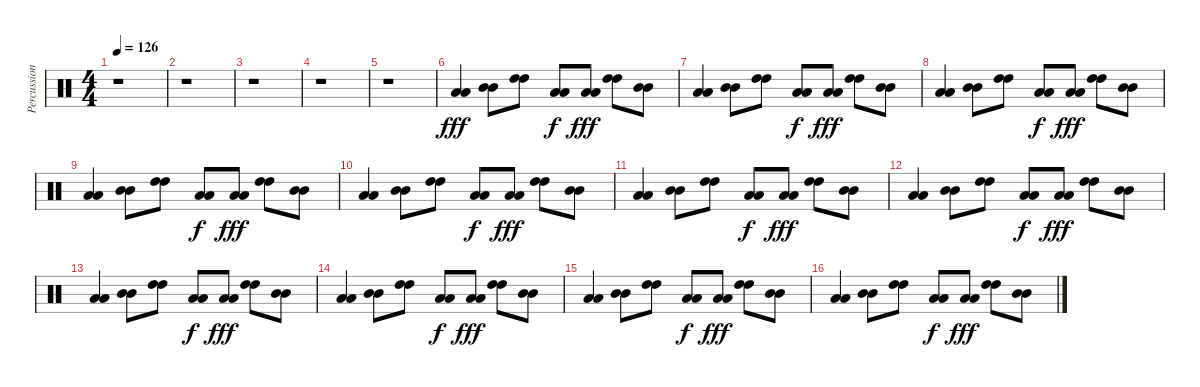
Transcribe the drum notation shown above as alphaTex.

\track ("Percussions 2" "Percussion") {instrument percussion}
\staff {score}
\articulation defaults
\ts (4 4)
\tempo 126
\clef neutral
\ks c
r.1{dy fff} |
r.1 |
r.1 |
r.1 |
r.1 |
("Low Tom (hit)" "Low Tom (hit)").4 ("Mid Tom (hit)" "Mid Tom (hit)").8 ("High Tom (hit)" "High Tom (hit)").8 ("Low Tom (hit)" "Low Tom (hit)").8{dy f} ("Low Tom (hit)" "Low Tom (hit)").8{dy fff} ("High Tom (hit)" "High Tom (hit)").8 ("Mid Tom (hit)" "Mid Tom (hit)").8 |
("Low Tom (hit)" "Low Tom (hit)").4 ("Mid Tom (hit)" "Mid Tom (hit)").8 ("High Tom (hit)" "High Tom (hit)").8 ("Low Tom (hit)" "Low Tom (hit)").8{dy f} ("Low Tom (hit)" "Low Tom (hit)").8{dy fff} ("High Tom (hit)" "High Tom (hit)").8 ("Mid Tom (hit)" "Mid Tom (hit)").8 |
("Low Tom (hit)" "Low Tom (hit)").4 ("Mid Tom (hit)" "Mid Tom (hit)").8 ("High Tom (hit)" "High Tom (hit)").8 ("Low Tom (hit)" "Low Tom (hit)").8{dy f} ("Low Tom (hit)" "Low Tom (hit)").8{dy fff} ("High Tom (hit)" "High Tom (hit)").8 ("Mid Tom (hit)" "Mid Tom (hit)").8 |
("Low Tom (hit)" "Low Tom (hit)").4 ("Mid Tom (hit)" "Mid Tom (hit)").8 ("High Tom (hit)" "High Tom (hit)").8 ("Low Tom (hit)" "Low Tom (hit)").8{dy f} ("Low Tom (hit)" "Low Tom (hit)").8{dy fff} ("High Tom (hit)" "High Tom (hit)").8 ("Mid Tom (hit)" "Mid Tom (hit)").8 |
("Low Tom (hit)" "Low Tom (hit)").4 ("Mid Tom (hit)" "Mid Tom (hit)").8 ("High Tom (hit)" "High Tom (hit)").8 ("Low Tom (hit)" "Low Tom (hit)").8{dy f} ("Low Tom (hit)" "Low Tom (hit)").8{dy fff} ("High Tom (hit)" "High Tom (hit)").8 ("Mid Tom (hit)" "Mid Tom (hit)").8 |
("Low Tom (hit)" "Low Tom (hit)").4 ("Mid Tom (hit)" "Mid Tom (hit)").8 ("High Tom (hit)" "High Tom (hit)").8 ("Low Tom (hit)" "Low Tom (hit)").8{dy f} ("Low Tom (hit)" "Low Tom (hit)").8{dy fff} ("High Tom (hit)" "High Tom (hit)").8 ("Mid Tom (hit)" "Mid Tom (hit)").8 |
("Low Tom (hit)" "Low Tom (hit)").4 ("Mid Tom (hit)" "Mid Tom (hit)").8 ("High Tom (hit)" "High Tom (hit)").8 ("Low Tom (hit)" "Low Tom (hit)").8{dy f} ("Low Tom (hit)" "Low Tom (hit)").8{dy fff} ("High Tom (hit)" "High Tom (hit)").8 ("Mid Tom (hit)" "Mid Tom (hit)").8 |
("Low Tom (hit)" "Low Tom (hit)").4 ("Mid Tom (hit)" "Mid Tom (hit)").8 ("High Tom (hit)" "High Tom (hit)").8 ("Low Tom (hit)" "Low Tom (hit)").8{dy f} ("Low Tom (hit)" "Low Tom (hit)").8{dy fff} ("High Tom (hit)" "High Tom (hit)").8 ("Mid Tom (hit)" "Mid Tom (hit)").8 |
("Low Tom (hit)" "Low Tom (hit)").4 ("Mid Tom (hit)" "Mid Tom (hit)").8 ("High Tom (hit)" "High Tom (hit)").8 ("Low Tom (hit)" "Low Tom (hit)").8{dy f} ("Low Tom (hit)" "Low Tom (hit)").8{dy fff} ("High Tom (hit)" "High Tom (hit)").8 ("Mid Tom (hit)" "Mid Tom (hit)").8 |
("Low Tom (hit)" "Low Tom (hit)").4 ("Mid Tom (hit)" "Mid Tom (hit)").8 ("High Tom (hit)" "High Tom (hit)").8 ("Low Tom (hit)" "Low Tom (hit)").8{dy f} ("Low Tom (hit)" "Low Tom (hit)").8{dy fff} ("High Tom (hit)" "High Tom (hit)").8 ("Mid Tom (hit)" "Mid Tom (hit)").8 |
("Low Tom (hit)" "Low Tom (hit)").4 ("Mid Tom (hit)" "Mid Tom (hit)").8 ("High Tom (hit)" "High Tom (hit)").8 ("Low Tom (hit)" "Low Tom (hit)").8{dy f} ("Low Tom (hit)" "Low Tom (hit)").8{dy fff} ("High Tom (hit)" "High Tom (hit)").8 ("Mid Tom (hit)" "Mid Tom (hit)").8
